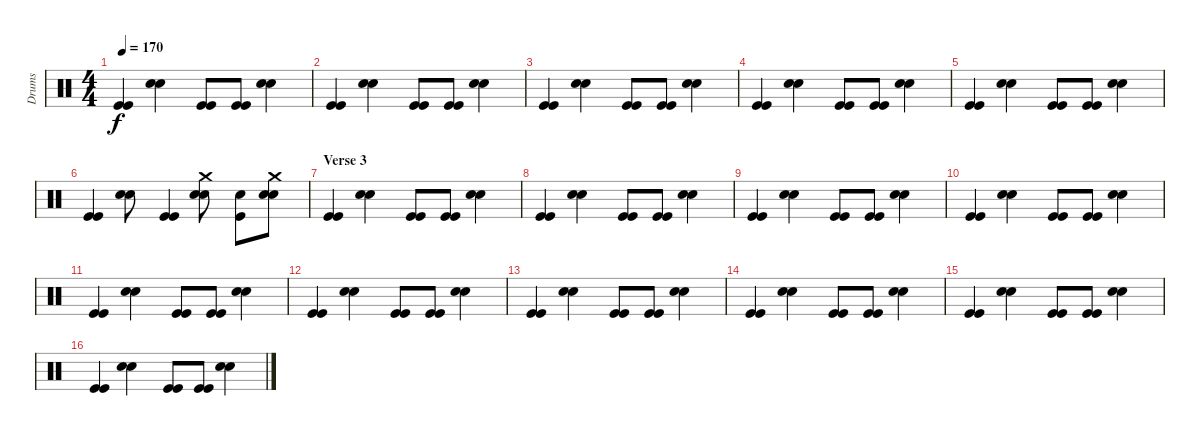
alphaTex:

\track ("Drums" "Drums") {instrument percussion}
\staff {score}
\articulation defaults
\ts (4 4)
\tempo 170
\clef neutral
\ks c
("Kick (hit)" "Kick (hit)").4{dy f} ("Snare (hit) 2" "Snare (hit) 2").4 ("Kick (hit)" "Kick (hit)").8 ("Kick (hit)" "Kick (hit)").8 ("Snare (hit) 2" "Snare (hit) 2").4 |
("Kick (hit)" "Kick (hit)").4 ("Snare (hit) 2" "Snare (hit) 2").4 ("Kick (hit)" "Kick (hit)").8 ("Kick (hit)" "Kick (hit)").8 ("Snare (hit) 2" "Snare (hit) 2").4 |
("Kick (hit)" "Kick (hit)").4 ("Snare (hit) 2" "Snare (hit) 2").4 ("Kick (hit)" "Kick (hit)").8 ("Kick (hit)" "Kick (hit)").8 ("Snare (hit) 2" "Snare (hit) 2").4 |
("Kick (hit)" "Kick (hit)").4 ("Snare (hit) 2" "Snare (hit) 2").4 ("Kick (hit)" "Kick (hit)").8 ("Kick (hit)" "Kick (hit)").8 ("Snare (hit) 2" "Snare (hit) 2").4 |
("Kick (hit)" "Kick (hit)").4 ("Snare (hit) 2" "Snare (hit) 2").4 ("Kick (hit)" "Kick (hit)").8 ("Kick (hit)" "Kick (hit)").8 ("Snare (hit) 2" "Snare (hit) 2").4 |
("Kick (hit)" "Kick (hit)").4 ("Snare (hit) 2" "Snare (hit) 2").8 ("Kick (hit)" "Kick (hit)").4 ("Crash medium (hit)" "Snare (hit) 2" "Snare (hit) 2").8 ("Snare (hit) 2" "Kick (hit)").8 ("Crash medium (hit)" "Snare (hit) 2" "Snare (hit) 2").8 |
\section ("" "Verse 3")
("Kick (hit)" "Kick (hit)").4 ("Snare (hit) 2" "Snare (hit) 2").4 ("Kick (hit)" "Kick (hit)").8 ("Kick (hit)" "Kick (hit)").8 ("Snare (hit) 2" "Snare (hit) 2").4 |
("Kick (hit)" "Kick (hit)").4 ("Snare (hit) 2" "Snare (hit) 2").4 ("Kick (hit)" "Kick (hit)").8 ("Kick (hit)" "Kick (hit)").8 ("Snare (hit) 2" "Snare (hit) 2").4 |
("Kick (hit)" "Kick (hit)").4 ("Snare (hit) 2" "Snare (hit) 2").4 ("Kick (hit)" "Kick (hit)").8 ("Kick (hit)" "Kick (hit)").8 ("Snare (hit) 2" "Snare (hit) 2").4 |
("Kick (hit)" "Kick (hit)").4 ("Snare (hit) 2" "Snare (hit) 2").4 ("Kick (hit)" "Kick (hit)").8 ("Kick (hit)" "Kick (hit)").8 ("Snare (hit) 2" "Snare (hit) 2").4 |
("Kick (hit)" "Kick (hit)").4 ("Snare (hit) 2" "Snare (hit) 2").4 ("Kick (hit)" "Kick (hit)").8 ("Kick (hit)" "Kick (hit)").8 ("Snare (hit) 2" "Snare (hit) 2").4 |
("Kick (hit)" "Kick (hit)").4 ("Snare (hit) 2" "Snare (hit) 2").4 ("Kick (hit)" "Kick (hit)").8 ("Kick (hit)" "Kick (hit)").8 ("Snare (hit) 2" "Snare (hit) 2").4 |
("Kick (hit)" "Kick (hit)").4 ("Snare (hit) 2" "Snare (hit) 2").4 ("Kick (hit)" "Kick (hit)").8 ("Kick (hit)" "Kick (hit)").8 ("Snare (hit) 2" "Snare (hit) 2").4 |
("Kick (hit)" "Kick (hit)").4 ("Snare (hit) 2" "Snare (hit) 2").4 ("Kick (hit)" "Kick (hit)").8 ("Kick (hit)" "Kick (hit)").8 ("Snare (hit) 2" "Snare (hit) 2").4 |
("Kick (hit)" "Kick (hit)").4 ("Snare (hit) 2" "Snare (hit) 2").4 ("Kick (hit)" "Kick (hit)").8 ("Kick (hit)" "Kick (hit)").8 ("Snare (hit) 2" "Snare (hit) 2").4 |
("Kick (hit)" "Kick (hit)").4 ("Snare (hit) 2" "Snare (hit) 2").4 ("Kick (hit)" "Kick (hit)").8 ("Kick (hit)" "Kick (hit)").8 ("Snare (hit) 2" "Snare (hit) 2").4
